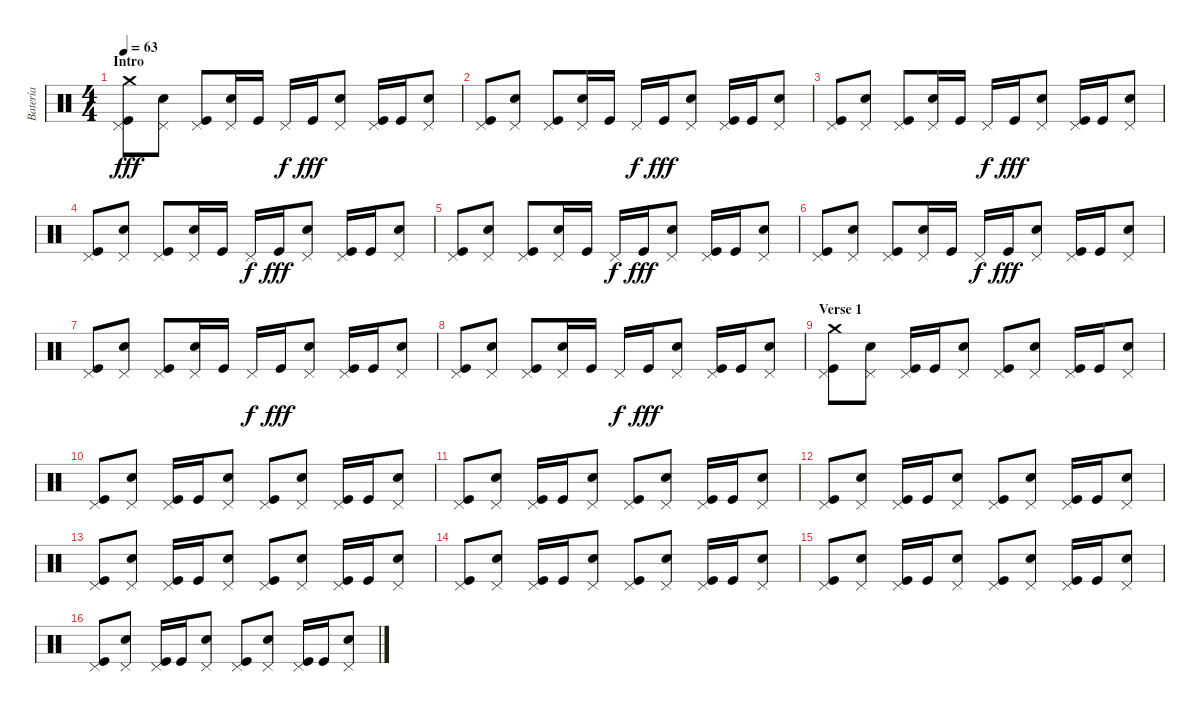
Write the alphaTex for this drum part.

\track ("Batería" "Batería") {instrument percussion}
\staff {score}
\articulation defaults
\ts (4 4)
\section ("" "Intro")
\tempo 63
\clef neutral
\ks c
("Pedal Hi-Hat (hit)" "Kick (hit)" "Crash medium (hit)").8{dy fff} ("Pedal Hi-Hat (hit)" "Electric Snare (hit)").8 ("Pedal Hi-Hat (hit)" "Kick (hit)").8 ("Pedal Hi-Hat (hit)" "Electric Snare (hit)").16 "Kick (hit)".16 "Pedal Hi-Hat (hit)".16{dy f} "Kick (hit)".16{dy fff} ("Pedal Hi-Hat (hit)" "Electric Snare (hit)").8 ("Pedal Hi-Hat (hit)" "Kick (hit)").16 "Kick (hit)".16 ("Pedal Hi-Hat (hit)" "Electric Snare (hit)").8 |
("Pedal Hi-Hat (hit)" "Kick (hit)").8 ("Pedal Hi-Hat (hit)" "Electric Snare (hit)").8 ("Pedal Hi-Hat (hit)" "Kick (hit)").8 ("Pedal Hi-Hat (hit)" "Electric Snare (hit)").16 "Kick (hit)".16 "Pedal Hi-Hat (hit)".16{dy f} "Kick (hit)".16{dy fff} ("Pedal Hi-Hat (hit)" "Electric Snare (hit)").8 ("Pedal Hi-Hat (hit)" "Kick (hit)").16 "Kick (hit)".16 ("Pedal Hi-Hat (hit)" "Electric Snare (hit)").8 |
("Pedal Hi-Hat (hit)" "Kick (hit)").8 ("Pedal Hi-Hat (hit)" "Electric Snare (hit)").8 ("Pedal Hi-Hat (hit)" "Kick (hit)").8 ("Pedal Hi-Hat (hit)" "Electric Snare (hit)").16 "Kick (hit)".16 "Pedal Hi-Hat (hit)".16{dy f} "Kick (hit)".16{dy fff} ("Pedal Hi-Hat (hit)" "Electric Snare (hit)").8 ("Pedal Hi-Hat (hit)" "Kick (hit)").16 "Kick (hit)".16 ("Pedal Hi-Hat (hit)" "Electric Snare (hit)").8 |
("Pedal Hi-Hat (hit)" "Kick (hit)").8 ("Pedal Hi-Hat (hit)" "Electric Snare (hit)").8 ("Pedal Hi-Hat (hit)" "Kick (hit)").8 ("Pedal Hi-Hat (hit)" "Electric Snare (hit)").16 "Kick (hit)".16 "Pedal Hi-Hat (hit)".16{dy f} "Kick (hit)".16{dy fff} ("Pedal Hi-Hat (hit)" "Electric Snare (hit)").8 ("Pedal Hi-Hat (hit)" "Kick (hit)").16 "Kick (hit)".16 ("Pedal Hi-Hat (hit)" "Electric Snare (hit)").8 |
("Pedal Hi-Hat (hit)" "Kick (hit)").8 ("Pedal Hi-Hat (hit)" "Electric Snare (hit)").8 ("Pedal Hi-Hat (hit)" "Kick (hit)").8 ("Pedal Hi-Hat (hit)" "Electric Snare (hit)").16 "Kick (hit)".16 "Pedal Hi-Hat (hit)".16{dy f} "Kick (hit)".16{dy fff} ("Pedal Hi-Hat (hit)" "Electric Snare (hit)").8 ("Pedal Hi-Hat (hit)" "Kick (hit)").16 "Kick (hit)".16 ("Pedal Hi-Hat (hit)" "Electric Snare (hit)").8 |
("Pedal Hi-Hat (hit)" "Kick (hit)").8 ("Pedal Hi-Hat (hit)" "Electric Snare (hit)").8 ("Pedal Hi-Hat (hit)" "Kick (hit)").8 ("Pedal Hi-Hat (hit)" "Electric Snare (hit)").16 "Kick (hit)".16 "Pedal Hi-Hat (hit)".16{dy f} "Kick (hit)".16{dy fff} ("Pedal Hi-Hat (hit)" "Electric Snare (hit)").8 ("Pedal Hi-Hat (hit)" "Kick (hit)").16 "Kick (hit)".16 ("Pedal Hi-Hat (hit)" "Electric Snare (hit)").8 |
("Pedal Hi-Hat (hit)" "Kick (hit)").8 ("Pedal Hi-Hat (hit)" "Electric Snare (hit)").8 ("Pedal Hi-Hat (hit)" "Kick (hit)").8 ("Pedal Hi-Hat (hit)" "Electric Snare (hit)").16 "Kick (hit)".16 "Pedal Hi-Hat (hit)".16{dy f} "Kick (hit)".16{dy fff} ("Pedal Hi-Hat (hit)" "Electric Snare (hit)").8 ("Pedal Hi-Hat (hit)" "Kick (hit)").16 "Kick (hit)".16 ("Pedal Hi-Hat (hit)" "Electric Snare (hit)").8 |
("Pedal Hi-Hat (hit)" "Kick (hit)").8 ("Pedal Hi-Hat (hit)" "Electric Snare (hit)").8 ("Pedal Hi-Hat (hit)" "Kick (hit)").8 ("Pedal Hi-Hat (hit)" "Electric Snare (hit)").16 "Kick (hit)".16 "Pedal Hi-Hat (hit)".16{dy f} "Kick (hit)".16{dy fff} ("Pedal Hi-Hat (hit)" "Electric Snare (hit)").8 ("Pedal Hi-Hat (hit)" "Kick (hit)").16 "Kick (hit)".16 ("Pedal Hi-Hat (hit)" "Electric Snare (hit)").8 |
\section ("" "Verse 1")
("Pedal Hi-Hat (hit)" "Kick (hit)" "Crash medium (hit)").8 ("Pedal Hi-Hat (hit)" "Electric Snare (hit)").8 ("Pedal Hi-Hat (hit)" "Kick (hit)").16 "Kick (hit)".16 ("Pedal Hi-Hat (hit)" "Electric Snare (hit)").8 ("Pedal Hi-Hat (hit)" "Kick (hit)").8 ("Pedal Hi-Hat (hit)" "Electric Snare (hit)").8 ("Pedal Hi-Hat (hit)" "Kick (hit)").16 "Kick (hit)".16 ("Pedal Hi-Hat (hit)" "Electric Snare (hit)").8 |
("Pedal Hi-Hat (hit)" "Kick (hit)").8 ("Pedal Hi-Hat (hit)" "Electric Snare (hit)").8 ("Pedal Hi-Hat (hit)" "Kick (hit)").16 "Kick (hit)".16 ("Pedal Hi-Hat (hit)" "Electric Snare (hit)").8 ("Pedal Hi-Hat (hit)" "Kick (hit)").8 ("Pedal Hi-Hat (hit)" "Electric Snare (hit)").8 ("Pedal Hi-Hat (hit)" "Kick (hit)").16 "Kick (hit)".16 ("Pedal Hi-Hat (hit)" "Electric Snare (hit)").8 |
("Pedal Hi-Hat (hit)" "Kick (hit)").8 ("Pedal Hi-Hat (hit)" "Electric Snare (hit)").8 ("Pedal Hi-Hat (hit)" "Kick (hit)").16 "Kick (hit)".16 ("Pedal Hi-Hat (hit)" "Electric Snare (hit)").8 ("Pedal Hi-Hat (hit)" "Kick (hit)").8 ("Pedal Hi-Hat (hit)" "Electric Snare (hit)").8 ("Pedal Hi-Hat (hit)" "Kick (hit)").16 "Kick (hit)".16 ("Pedal Hi-Hat (hit)" "Electric Snare (hit)").8 |
("Pedal Hi-Hat (hit)" "Kick (hit)").8 ("Pedal Hi-Hat (hit)" "Electric Snare (hit)").8 ("Pedal Hi-Hat (hit)" "Kick (hit)").16 "Kick (hit)".16 ("Pedal Hi-Hat (hit)" "Electric Snare (hit)").8 ("Pedal Hi-Hat (hit)" "Kick (hit)").8 ("Pedal Hi-Hat (hit)" "Electric Snare (hit)").8 ("Pedal Hi-Hat (hit)" "Kick (hit)").16 "Kick (hit)".16 ("Pedal Hi-Hat (hit)" "Electric Snare (hit)").8 |
("Pedal Hi-Hat (hit)" "Kick (hit)").8 ("Pedal Hi-Hat (hit)" "Electric Snare (hit)").8 ("Pedal Hi-Hat (hit)" "Kick (hit)").16 "Kick (hit)".16 ("Pedal Hi-Hat (hit)" "Electric Snare (hit)").8 ("Pedal Hi-Hat (hit)" "Kick (hit)").8 ("Pedal Hi-Hat (hit)" "Electric Snare (hit)").8 ("Pedal Hi-Hat (hit)" "Kick (hit)").16 "Kick (hit)".16 ("Pedal Hi-Hat (hit)" "Electric Snare (hit)").8 |
("Pedal Hi-Hat (hit)" "Kick (hit)").8 ("Pedal Hi-Hat (hit)" "Electric Snare (hit)").8 ("Pedal Hi-Hat (hit)" "Kick (hit)").16 "Kick (hit)".16 ("Pedal Hi-Hat (hit)" "Electric Snare (hit)").8 ("Pedal Hi-Hat (hit)" "Kick (hit)").8 ("Pedal Hi-Hat (hit)" "Electric Snare (hit)").8 ("Pedal Hi-Hat (hit)" "Kick (hit)").16 "Kick (hit)".16 ("Pedal Hi-Hat (hit)" "Electric Snare (hit)").8 |
("Pedal Hi-Hat (hit)" "Kick (hit)").8 ("Pedal Hi-Hat (hit)" "Electric Snare (hit)").8 ("Pedal Hi-Hat (hit)" "Kick (hit)").16 "Kick (hit)".16 ("Pedal Hi-Hat (hit)" "Electric Snare (hit)").8 ("Pedal Hi-Hat (hit)" "Kick (hit)").8 ("Pedal Hi-Hat (hit)" "Electric Snare (hit)").8 ("Pedal Hi-Hat (hit)" "Kick (hit)").16 "Kick (hit)".16 ("Pedal Hi-Hat (hit)" "Electric Snare (hit)").8 |
("Pedal Hi-Hat (hit)" "Kick (hit)").8 ("Pedal Hi-Hat (hit)" "Electric Snare (hit)").8 ("Pedal Hi-Hat (hit)" "Kick (hit)").16 "Kick (hit)".16 ("Pedal Hi-Hat (hit)" "Electric Snare (hit)").8 ("Pedal Hi-Hat (hit)" "Kick (hit)").8 ("Pedal Hi-Hat (hit)" "Electric Snare (hit)").8 ("Pedal Hi-Hat (hit)" "Kick (hit)").16 "Kick (hit)".16 ("Pedal Hi-Hat (hit)" "Electric Snare (hit)").8
